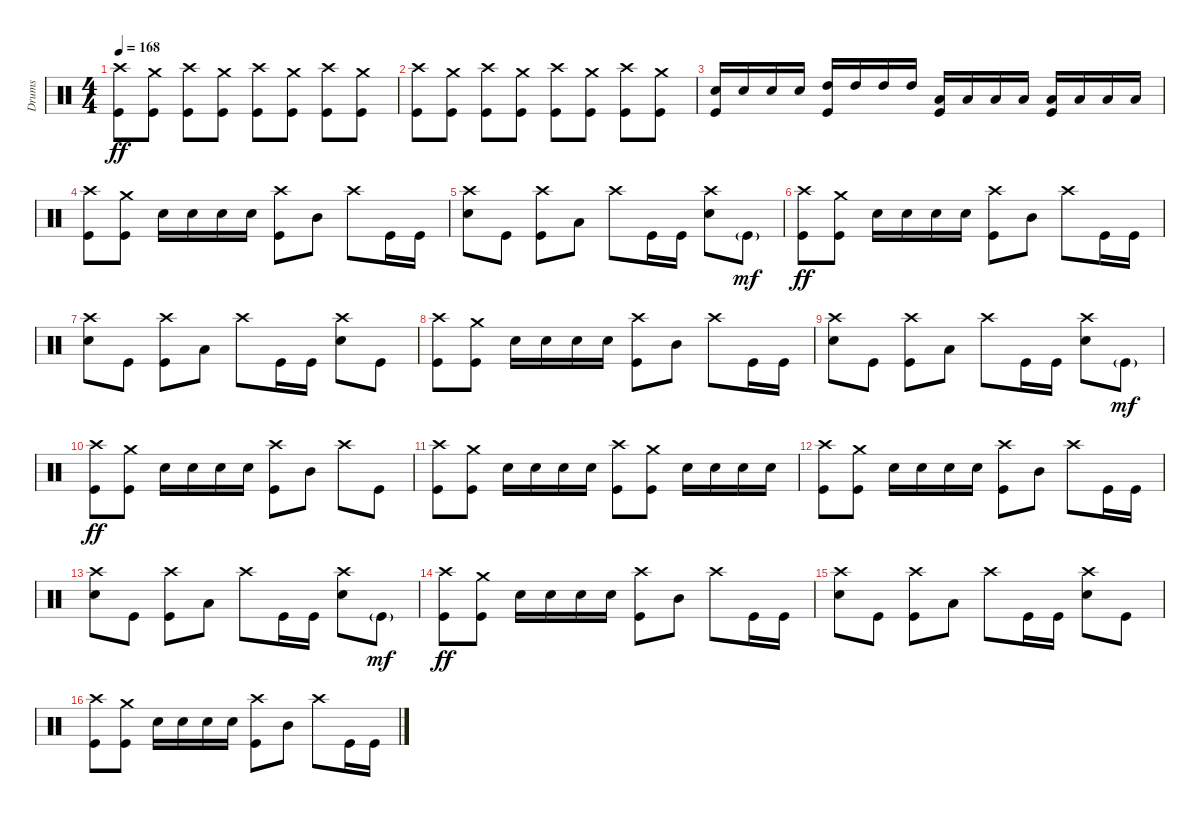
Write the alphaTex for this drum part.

\track ("Drums" "Drums") {instrument percussion}
\staff {score}
\articulation defaults
\ts (4 4)
\tempo 168
\clef neutral
\ks c
("Crash high (hit)" "Kick (hit)").8{dy ff} ("Crash medium (hit)" "Kick (hit)").8 ("Crash high (hit)" "Kick (hit)").8 ("Crash medium (hit)" "Kick (hit)").8 ("Crash high (hit)" "Kick (hit)").8 ("Crash medium (hit)" "Kick (hit)").8 ("Crash high (hit)" "Kick (hit)").8 ("Crash medium (hit)" "Kick (hit)").8 |
("Crash high (hit)" "Kick (hit)").8 ("Crash medium (hit)" "Kick (hit)").8 ("Crash high (hit)" "Kick (hit)").8 ("Crash medium (hit)" "Kick (hit)").8 ("Crash high (hit)" "Kick (hit)").8 ("Crash medium (hit)" "Kick (hit)").8 ("Crash high (hit)" "Kick (hit)").8 ("Crash medium (hit)" "Kick (hit)").8 |
("Snare (hit) 2" "Kick (hit)").16 "Snare (hit) 2".16 "Snare (hit) 2".16 "Snare (hit) 2".16 ("High Tom (hit)" "Kick (hit)").16 "High Tom (hit)".16 "High Tom (hit)".16 "High Tom (hit)".16 ("Low Tom (hit)" "Kick (hit)").16 "Low Tom (hit)".16 "Low Tom (hit)".16 "Low Tom (hit)".16 ("Low Floor Tom (hit)" "Kick (hit)").16 "Low Floor Tom (hit)".16 "Low Floor Tom (hit)".16 "Low Floor Tom (hit)".16 |
("Crash high (hit)" "Kick (hit)").8 ("Crash medium (hit)" "Kick (hit)").8 "Snare (hit) 2".16 "Snare (hit) 2".16 "Snare (hit) 2".16 "Snare (hit) 2".16 ("Crash high (hit)" "Kick (hit)").8 "Mid Tom (hit)".8 "Crash high (hit)".8 "Kick (hit)".16 "Kick (hit)".16 |
("Crash high (hit)" "Snare (hit) 2").8 "Kick (hit)".8 ("Crash high (hit)" "Kick (hit)").8 "Low Floor Tom (hit)".8 "Crash high (hit)".8 "Kick (hit)".16 "Kick (hit)".16 ("Crash high (hit)" "Snare (hit) 2").8 "Kick (hit)"{g}.8{dy mf} |
("Crash high (hit)" "Kick (hit)").8{dy ff} ("Crash medium (hit)" "Kick (hit)").8 "Snare (hit) 2".16 "Snare (hit) 2".16 "Snare (hit) 2".16 "Snare (hit) 2".16 ("Crash high (hit)" "Kick (hit)").8 "Mid Tom (hit)".8 "Crash high (hit)".8 "Kick (hit)".16 "Kick (hit)".16 |
("Crash high (hit)" "Snare (hit) 2").8 "Kick (hit)".8 ("Crash high (hit)" "Kick (hit)").8 "Low Floor Tom (hit)".8 "Crash high (hit)".8 "Kick (hit)".16 "Kick (hit)".16 ("Crash high (hit)" "Snare (hit) 2").8 "Kick (hit)".8 |
("Crash high (hit)" "Kick (hit)").8 ("Crash medium (hit)" "Kick (hit)").8 "Snare (hit) 2".16 "Snare (hit) 2".16 "Snare (hit) 2".16 "Snare (hit) 2".16 ("Crash high (hit)" "Kick (hit)").8 "Mid Tom (hit)".8 "Crash high (hit)".8 "Kick (hit)".16 "Kick (hit)".16 |
("Crash high (hit)" "Snare (hit) 2").8 "Kick (hit)".8 ("Crash high (hit)" "Kick (hit)").8 "Low Floor Tom (hit)".8 "Crash high (hit)".8 "Kick (hit)".16 "Kick (hit)".16 ("Crash high (hit)" "Snare (hit) 2").8 "Kick (hit)"{g}.8{dy mf} |
("Crash high (hit)" "Kick (hit)").8{dy ff} ("Crash medium (hit)" "Kick (hit)").8 "Snare (hit) 2".16 "Snare (hit) 2".16 "Snare (hit) 2".16 "Snare (hit) 2".16 ("Crash high (hit)" "Kick (hit)").8 "Mid Tom (hit)".8 "Crash high (hit)".8 "Kick (hit)".8 |
("Crash high (hit)" "Kick (hit)").8 ("Crash medium (hit)" "Kick (hit)").8 "Snare (hit) 2".16 "Snare (hit) 2".16 "Snare (hit) 2".16 "Snare (hit) 2".16 ("Crash high (hit)" "Kick (hit)").8 ("Crash medium (hit)" "Kick (hit)").8 "Snare (hit) 2".16 "Snare (hit) 2".16 "Snare (hit) 2".16 "Snare (hit) 2".16 |
("Crash high (hit)" "Kick (hit)").8 ("Crash medium (hit)" "Kick (hit)").8 "Snare (hit) 2".16 "Snare (hit) 2".16 "Snare (hit) 2".16 "Snare (hit) 2".16 ("Crash high (hit)" "Kick (hit)").8 "Mid Tom (hit)".8 "Crash high (hit)".8 "Kick (hit)".16 "Kick (hit)".16 |
("Crash high (hit)" "Snare (hit) 2").8 "Kick (hit)".8 ("Crash high (hit)" "Kick (hit)").8 "Low Floor Tom (hit)".8 "Crash high (hit)".8 "Kick (hit)".16 "Kick (hit)".16 ("Crash high (hit)" "Snare (hit) 2").8 "Kick (hit)"{g}.8{dy mf} |
("Crash high (hit)" "Kick (hit)").8{dy ff} ("Crash medium (hit)" "Kick (hit)").8 "Snare (hit) 2".16 "Snare (hit) 2".16 "Snare (hit) 2".16 "Snare (hit) 2".16 ("Crash high (hit)" "Kick (hit)").8 "Mid Tom (hit)".8 "Crash high (hit)".8 "Kick (hit)".16 "Kick (hit)".16 |
("Crash high (hit)" "Snare (hit) 2").8 "Kick (hit)".8 ("Crash high (hit)" "Kick (hit)").8 "Low Floor Tom (hit)".8 "Crash high (hit)".8 "Kick (hit)".16 "Kick (hit)".16 ("Crash high (hit)" "Snare (hit) 2").8 "Kick (hit)".8 |
("Crash high (hit)" "Kick (hit)").8 ("Crash medium (hit)" "Kick (hit)").8 "Snare (hit) 2".16 "Snare (hit) 2".16 "Snare (hit) 2".16 "Snare (hit) 2".16 ("Crash high (hit)" "Kick (hit)").8 "Mid Tom (hit)".8 "Crash high (hit)".8 "Kick (hit)".16 "Kick (hit)".16
